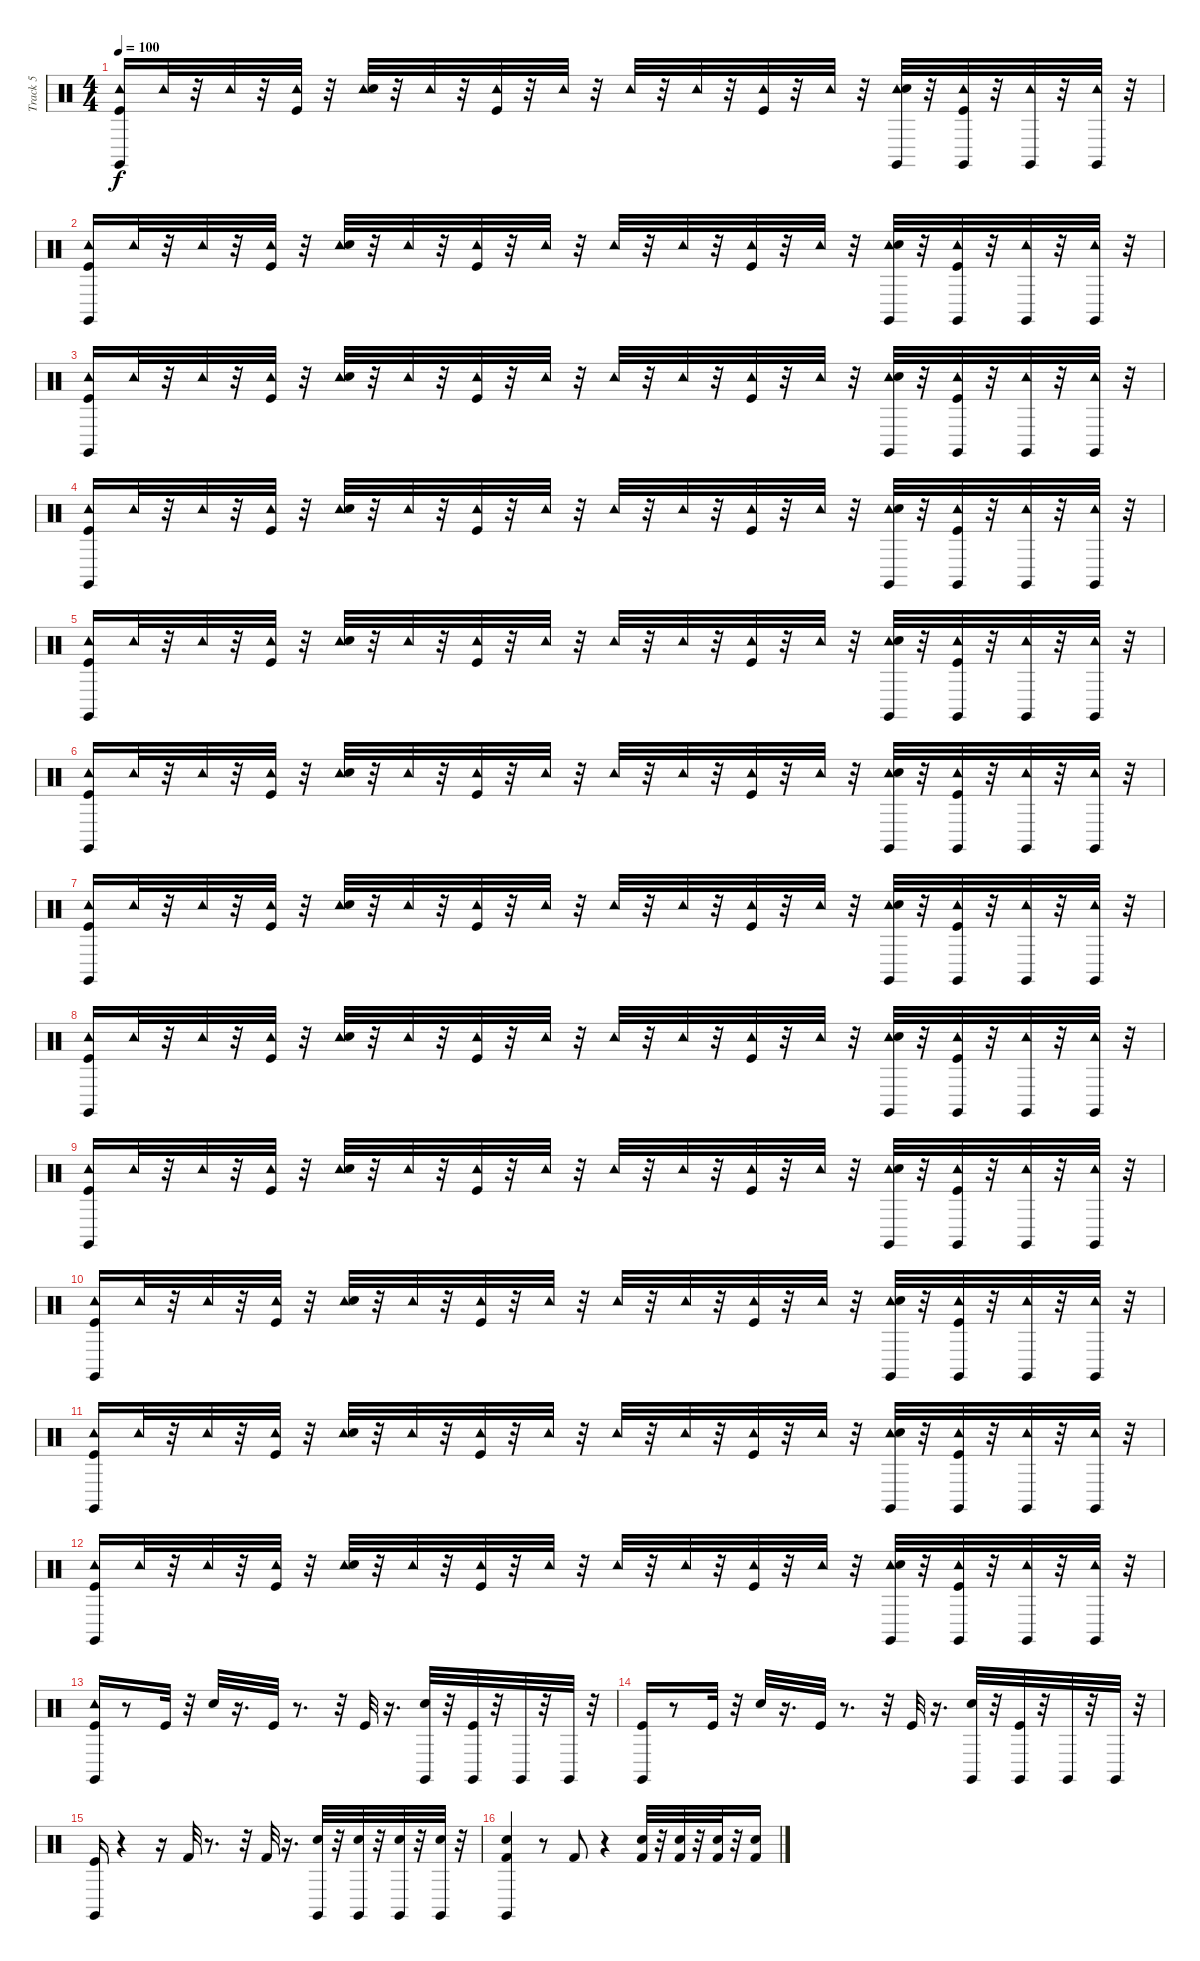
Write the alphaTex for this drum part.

\track ("Track 5" "Track 5") {instrument percussion}
\staff {score}
\articulation defaults
\ts (4 4)
\tempo 100
\clef neutral
\ks c
("Tambourine (hit)" "Claves (hit)" "Kick (hit)").16{dy f} "Tambourine (hit)".32 r.32 "Tambourine (hit)".32 r.32 ("Tambourine (hit)" "Kick (hit)").32 r.32 ("Tambourine (hit)" "Snare (hit) 2").32 r.32 "Tambourine (hit)".32 r.32 ("Tambourine (hit)" "Kick (hit)").32 r.32 "Tambourine (hit)".32 r.32 "Tambourine (hit)".32 r.32 "Tambourine (hit)".32 r.32 ("Tambourine (hit)" "Kick (hit)").32 r.32 "Tambourine (hit)".32 r.32 ("Tambourine (hit)" "Claves (hit)" "Snare (hit) 2").32 r.32 ("Tambourine (hit)" "Claves (hit)" "Kick (hit)").32 r.32 ("Tambourine (hit)" "Claves (hit)").32 r.32 ("Tambourine (hit)" "Claves (hit)").32 r.32 |
("Tambourine (hit)" "Claves (hit)" "Kick (hit)").16 "Tambourine (hit)".32 r.32 "Tambourine (hit)".32 r.32 ("Tambourine (hit)" "Kick (hit)").32 r.32 ("Tambourine (hit)" "Snare (hit) 2").32 r.32 "Tambourine (hit)".32 r.32 ("Tambourine (hit)" "Kick (hit)").32 r.32 "Tambourine (hit)".32 r.32 "Tambourine (hit)".32 r.32 "Tambourine (hit)".32 r.32 ("Tambourine (hit)" "Kick (hit)").32 r.32 "Tambourine (hit)".32 r.32 ("Tambourine (hit)" "Claves (hit)" "Snare (hit) 2").32 r.32 ("Tambourine (hit)" "Claves (hit)" "Kick (hit)").32 r.32 ("Tambourine (hit)" "Claves (hit)").32 r.32 ("Tambourine (hit)" "Claves (hit)").32 r.32 |
("Tambourine (hit)" "Claves (hit)" "Kick (hit)").16 "Tambourine (hit)".32 r.32 "Tambourine (hit)".32 r.32 ("Tambourine (hit)" "Kick (hit)").32 r.32 ("Tambourine (hit)" "Snare (hit) 2").32 r.32 "Tambourine (hit)".32 r.32 ("Tambourine (hit)" "Kick (hit)").32 r.32 "Tambourine (hit)".32 r.32 "Tambourine (hit)".32 r.32 "Tambourine (hit)".32 r.32 ("Tambourine (hit)" "Kick (hit)").32 r.32 "Tambourine (hit)".32 r.32 ("Tambourine (hit)" "Claves (hit)" "Snare (hit) 2").32 r.32 ("Tambourine (hit)" "Claves (hit)" "Kick (hit)").32 r.32 ("Tambourine (hit)" "Claves (hit)").32 r.32 ("Tambourine (hit)" "Claves (hit)").32 r.32 |
("Tambourine (hit)" "Claves (hit)" "Kick (hit)").16 "Tambourine (hit)".32 r.32 "Tambourine (hit)".32 r.32 ("Tambourine (hit)" "Kick (hit)").32 r.32 ("Tambourine (hit)" "Snare (hit) 2").32 r.32 "Tambourine (hit)".32 r.32 ("Tambourine (hit)" "Kick (hit)").32 r.32 "Tambourine (hit)".32 r.32 "Tambourine (hit)".32 r.32 "Tambourine (hit)".32 r.32 ("Tambourine (hit)" "Kick (hit)").32 r.32 "Tambourine (hit)".32 r.32 ("Tambourine (hit)" "Claves (hit)" "Snare (hit) 2").32 r.32 ("Tambourine (hit)" "Claves (hit)" "Kick (hit)").32 r.32 ("Tambourine (hit)" "Claves (hit)").32 r.32 ("Tambourine (hit)" "Claves (hit)").32 r.32 |
("Tambourine (hit)" "Claves (hit)" "Kick (hit)").16 "Tambourine (hit)".32 r.32 "Tambourine (hit)".32 r.32 ("Tambourine (hit)" "Kick (hit)").32 r.32 ("Tambourine (hit)" "Snare (hit) 2").32 r.32 "Tambourine (hit)".32 r.32 ("Tambourine (hit)" "Kick (hit)").32 r.32 "Tambourine (hit)".32 r.32 "Tambourine (hit)".32 r.32 "Tambourine (hit)".32 r.32 ("Tambourine (hit)" "Kick (hit)").32 r.32 "Tambourine (hit)".32 r.32 ("Tambourine (hit)" "Claves (hit)" "Snare (hit) 2").32 r.32 ("Tambourine (hit)" "Claves (hit)" "Kick (hit)").32 r.32 ("Tambourine (hit)" "Claves (hit)").32 r.32 ("Tambourine (hit)" "Claves (hit)").32 r.32 |
("Tambourine (hit)" "Claves (hit)" "Kick (hit)").16 "Tambourine (hit)".32 r.32 "Tambourine (hit)".32 r.32 ("Tambourine (hit)" "Kick (hit)").32 r.32 ("Tambourine (hit)" "Snare (hit) 2").32 r.32 "Tambourine (hit)".32 r.32 ("Tambourine (hit)" "Kick (hit)").32 r.32 "Tambourine (hit)".32 r.32 "Tambourine (hit)".32 r.32 "Tambourine (hit)".32 r.32 ("Tambourine (hit)" "Kick (hit)").32 r.32 "Tambourine (hit)".32 r.32 ("Tambourine (hit)" "Claves (hit)" "Snare (hit) 2").32 r.32 ("Tambourine (hit)" "Claves (hit)" "Kick (hit)").32 r.32 ("Tambourine (hit)" "Claves (hit)").32 r.32 ("Tambourine (hit)" "Claves (hit)").32 r.32 |
("Tambourine (hit)" "Claves (hit)" "Kick (hit)").16 "Tambourine (hit)".32 r.32 "Tambourine (hit)".32 r.32 ("Tambourine (hit)" "Kick (hit)").32 r.32 ("Tambourine (hit)" "Snare (hit) 2").32 r.32 "Tambourine (hit)".32 r.32 ("Tambourine (hit)" "Kick (hit)").32 r.32 "Tambourine (hit)".32 r.32 "Tambourine (hit)".32 r.32 "Tambourine (hit)".32 r.32 ("Tambourine (hit)" "Kick (hit)").32 r.32 "Tambourine (hit)".32 r.32 ("Tambourine (hit)" "Claves (hit)" "Snare (hit) 2").32 r.32 ("Tambourine (hit)" "Claves (hit)" "Kick (hit)").32 r.32 ("Tambourine (hit)" "Claves (hit)").32 r.32 ("Tambourine (hit)" "Claves (hit)").32 r.32 |
("Tambourine (hit)" "Claves (hit)" "Kick (hit)").16 "Tambourine (hit)".32 r.32 "Tambourine (hit)".32 r.32 ("Tambourine (hit)" "Kick (hit)").32 r.32 ("Tambourine (hit)" "Snare (hit) 2").32 r.32 "Tambourine (hit)".32 r.32 ("Tambourine (hit)" "Kick (hit)").32 r.32 "Tambourine (hit)".32 r.32 "Tambourine (hit)".32 r.32 "Tambourine (hit)".32 r.32 ("Tambourine (hit)" "Kick (hit)").32 r.32 "Tambourine (hit)".32 r.32 ("Tambourine (hit)" "Claves (hit)" "Snare (hit) 2").32 r.32 ("Tambourine (hit)" "Claves (hit)" "Kick (hit)").32 r.32 ("Tambourine (hit)" "Claves (hit)").32 r.32 ("Tambourine (hit)" "Claves (hit)").32 r.32 |
("Tambourine (hit)" "Claves (hit)" "Kick (hit)").16 "Tambourine (hit)".32 r.32 "Tambourine (hit)".32 r.32 ("Tambourine (hit)" "Kick (hit)").32 r.32 ("Tambourine (hit)" "Snare (hit) 2").32 r.32 "Tambourine (hit)".32 r.32 ("Tambourine (hit)" "Kick (hit)").32 r.32 "Tambourine (hit)".32 r.32 "Tambourine (hit)".32 r.32 "Tambourine (hit)".32 r.32 ("Tambourine (hit)" "Kick (hit)").32 r.32 "Tambourine (hit)".32 r.32 ("Tambourine (hit)" "Claves (hit)" "Snare (hit) 2").32 r.32 ("Tambourine (hit)" "Claves (hit)" "Kick (hit)").32 r.32 ("Tambourine (hit)" "Claves (hit)").32 r.32 ("Tambourine (hit)" "Claves (hit)").32 r.32 |
("Tambourine (hit)" "Claves (hit)" "Kick (hit)").16 "Tambourine (hit)".32 r.32 "Tambourine (hit)".32 r.32 ("Tambourine (hit)" "Kick (hit)").32 r.32 ("Tambourine (hit)" "Snare (hit) 2").32 r.32 "Tambourine (hit)".32 r.32 ("Tambourine (hit)" "Kick (hit)").32 r.32 "Tambourine (hit)".32 r.32 "Tambourine (hit)".32 r.32 "Tambourine (hit)".32 r.32 ("Tambourine (hit)" "Kick (hit)").32 r.32 "Tambourine (hit)".32 r.32 ("Tambourine (hit)" "Claves (hit)" "Snare (hit) 2").32 r.32 ("Tambourine (hit)" "Claves (hit)" "Kick (hit)").32 r.32 ("Tambourine (hit)" "Claves (hit)").32 r.32 ("Tambourine (hit)" "Claves (hit)").32 r.32 |
("Tambourine (hit)" "Claves (hit)" "Kick (hit)").16 "Tambourine (hit)".32 r.32 "Tambourine (hit)".32 r.32 ("Tambourine (hit)" "Kick (hit)").32 r.32 ("Tambourine (hit)" "Snare (hit) 2").32 r.32 "Tambourine (hit)".32 r.32 ("Tambourine (hit)" "Kick (hit)").32 r.32 "Tambourine (hit)".32 r.32 "Tambourine (hit)".32 r.32 "Tambourine (hit)".32 r.32 ("Tambourine (hit)" "Kick (hit)").32 r.32 "Tambourine (hit)".32 r.32 ("Tambourine (hit)" "Claves (hit)" "Snare (hit) 2").32 r.32 ("Tambourine (hit)" "Claves (hit)" "Kick (hit)").32 r.32 ("Tambourine (hit)" "Claves (hit)").32 r.32 ("Tambourine (hit)" "Claves (hit)").32 r.32 |
("Tambourine (hit)" "Claves (hit)" "Kick (hit)").16 "Tambourine (hit)".32 r.32 "Tambourine (hit)".32 r.32 ("Tambourine (hit)" "Kick (hit)").32 r.32 ("Tambourine (hit)" "Snare (hit) 2").32 r.32 "Tambourine (hit)".32 r.32 ("Tambourine (hit)" "Kick (hit)").32 r.32 "Tambourine (hit)".32 r.32 "Tambourine (hit)".32 r.32 "Tambourine (hit)".32 r.32 ("Tambourine (hit)" "Kick (hit)").32 r.32 "Tambourine (hit)".32 r.32 ("Tambourine (hit)" "Claves (hit)" "Snare (hit) 2").32 r.32 ("Tambourine (hit)" "Claves (hit)" "Kick (hit)").32 r.32 ("Tambourine (hit)" "Claves (hit)").32 r.32 ("Tambourine (hit)" "Claves (hit)").32 r.32 |
("Tambourine (hit)" "Claves (hit)" "Kick (hit)").16 r.8 "Kick (hit)".32 r.32 "Snare (hit) 2".32 r.16{d} "Kick (hit)".32 r.8{d} r.32 "Kick (hit)".32 r.16{d} ("Claves (hit)" "Snare (hit) 2").32 r.32 ("Claves (hit)" "Kick (hit)").32 r.32 "Claves (hit)".32 r.32 "Claves (hit)".32 r.32 |
("Claves (hit)" "Kick (hit)").16 r.8 "Kick (hit)".32 r.32 "Snare (hit) 2".32 r.16{d} "Kick (hit)".32 r.8{d} r.32 "Kick (hit)".32 r.16{d} ("Claves (hit)" "Snare (hit) 2").32 r.32 ("Kick (hit)" "Claves (hit)").32 r.32 "Claves (hit)".32 r.32 "Claves (hit)".32 r.32 |
("Kick (hit)" "Claves (hit)").16 r.4 r.16 "Kick (hit) 2".32 r.8{d} r.32 "Kick (hit) 2".32 r.16{d} ("Claves (hit)" "Snare (hit) 2").32 r.32 ("Snare (hit) 2" "Claves (hit)").32 r.32 ("Snare (hit) 2" "Claves (hit)").32 r.32 ("Snare (hit) 2" "Claves (hit)").32 r.32 |
("Snare (hit) 2" "Claves (hit)" "Kick (hit) 2").4 r.8 "Kick (hit) 2".8 r.4 ("Kick (hit) 2" "Snare (hit) 2").32 r.32 ("Kick (hit) 2" "Snare (hit) 2").32 r.32 ("Kick (hit) 2" "Snare (hit) 2").32 r.32 ("Snare (hit) 2" "Kick (hit) 2").16
